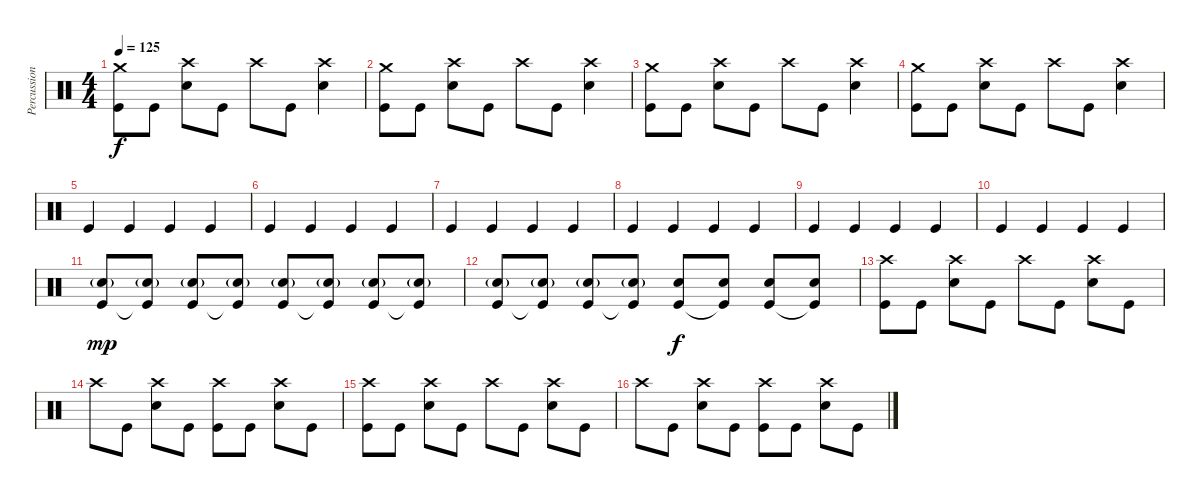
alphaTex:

\track ("Percussion" "Percussion") {instrument percussion}
\staff {score}
\articulation defaults
\ts (4 4)
\tempo 125
\clef neutral
\ks c
("Crash medium (hit)" "Kick (hit)").8{dy f} "Kick (hit)".8 ("Crash high (hit)" "Snare (hit) 2").8 "Kick (hit)".8 "Crash high (hit)".8 "Kick (hit)".8 ("Snare (hit) 2" "Crash high (hit)").4 |
("Crash medium (hit)" "Kick (hit)").8 "Kick (hit)".8 ("Crash high (hit)" "Snare (hit) 2").8 "Kick (hit)".8 "Crash high (hit)".8 "Kick (hit)".8 ("Snare (hit) 2" "Crash high (hit)").4 |
("Crash medium (hit)" "Kick (hit)").8 "Kick (hit)".8 ("Crash high (hit)" "Snare (hit) 2").8 "Kick (hit)".8 "Crash high (hit)".8 "Kick (hit)".8 ("Snare (hit) 2" "Crash high (hit)").4 |
("Crash medium (hit)" "Kick (hit)").8 "Kick (hit)".8 ("Crash high (hit)" "Snare (hit) 2").8 "Kick (hit)".8 "Crash high (hit)".8 "Kick (hit)".8 ("Snare (hit) 2" "Crash high (hit)").4 |
"Kick (hit)".4 "Kick (hit)".4 "Kick (hit)".4 "Kick (hit)".4 |
"Kick (hit)".4 "Kick (hit)".4 "Kick (hit)".4 "Kick (hit)".4 |
"Kick (hit)".4 "Kick (hit)".4 "Kick (hit)".4 "Kick (hit)".4 |
"Kick (hit)".4 "Kick (hit)".4 "Kick (hit)".4 "Kick (hit)".4 |
"Kick (hit)".4 "Kick (hit)".4 "Kick (hit)".4 "Kick (hit)".4 |
"Kick (hit)".4 "Kick (hit)".4 "Kick (hit)".4 "Kick (hit)".4 |
("Snare (hit) 2"{g} "Kick (hit)").8{dy mp} ("Snare (hit) 2"{g} "Kick (hit)"{t}).8 ("Snare (hit) 2"{g} "Kick (hit)").8 ("Snare (hit) 2"{g} "Kick (hit)"{t}).8 ("Snare (hit) 2"{g} "Kick (hit)").8 ("Snare (hit) 2"{g} "Kick (hit)"{t}).8 ("Snare (hit) 2"{g} "Kick (hit)").8 ("Snare (hit) 2"{g} "Kick (hit)"{t}).8 |
("Snare (hit) 2"{g} "Kick (hit)").8 ("Snare (hit) 2"{g} "Kick (hit)"{t}).8 ("Snare (hit) 2"{g} "Kick (hit)").8 ("Snare (hit) 2"{g} "Kick (hit)"{t}).8 ("Snare (hit) 2" "Kick (hit)").8{dy f} ("Snare (hit) 2" "Kick (hit)"{t}).8 ("Snare (hit) 2" "Kick (hit)").8 ("Snare (hit) 2" "Kick (hit)"{t}).8 |
("Crash high (hit)" "Kick (hit)").8 "Kick (hit)".8 ("Crash high (hit)" "Snare (hit) 2").8 "Kick (hit)".8 "Crash high (hit)".8 "Kick (hit)".8 ("Snare (hit) 2" "Crash high (hit)").8 "Kick (hit)".8 |
"Crash high (hit)".8 "Kick (hit)".8 ("Crash high (hit)" "Snare (hit) 2").8 "Kick (hit)".8 ("Crash high (hit)" "Kick (hit)").8 "Kick (hit)".8 ("Snare (hit) 2" "Crash high (hit)").8 "Kick (hit)".8 |
("Crash high (hit)" "Kick (hit)").8 "Kick (hit)".8 ("Crash high (hit)" "Snare (hit) 2").8 "Kick (hit)".8 "Crash high (hit)".8 "Kick (hit)".8 ("Snare (hit) 2" "Crash high (hit)").8 "Kick (hit)".8 |
"Crash high (hit)".8 "Kick (hit)".8 ("Crash high (hit)" "Snare (hit) 2").8 "Kick (hit)".8 ("Crash high (hit)" "Kick (hit)").8 "Kick (hit)".8 ("Snare (hit) 2" "Crash high (hit)").8 "Kick (hit)".8
